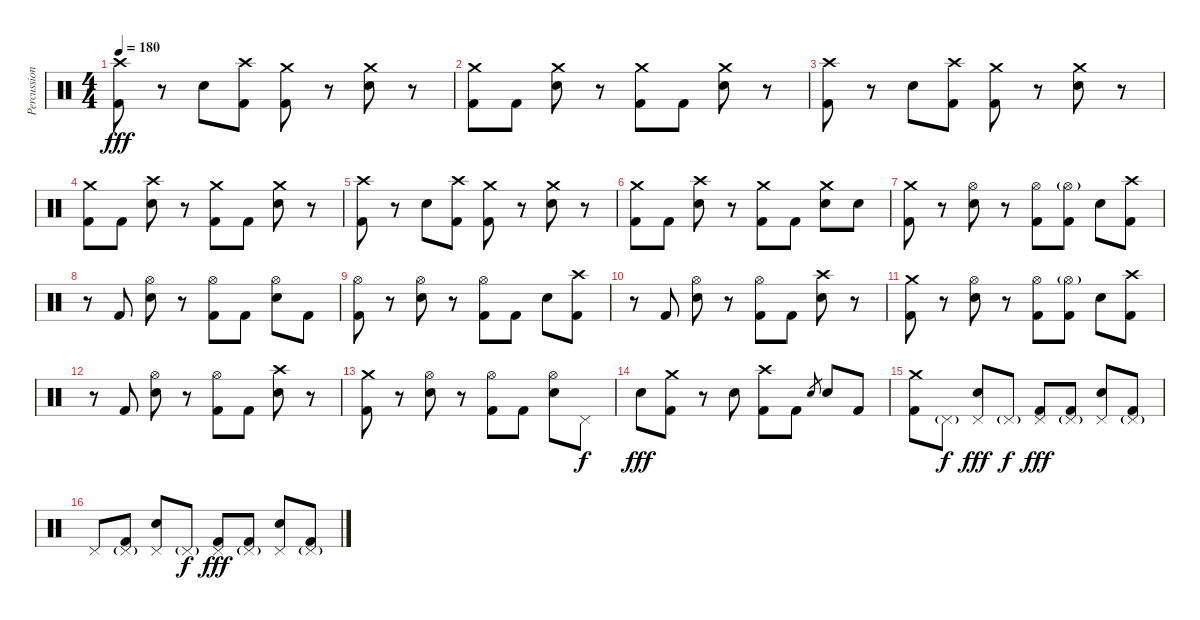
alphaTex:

\track ("Percussions" "Percussion") {mute instrument percussion}
\staff {score}
\articulation defaults
\ts (4 4)
\tempo 180
\clef neutral
\ks c
("Crash high (hit)" "Kick (hit) 2").8{dy fff} r.8 "Electric Snare (hit)".8 ("Crash high (hit)" "Kick (hit) 2").8 ("Crash medium (hit)" "Kick (hit) 2").8 r.8 ("Crash medium (hit)" "Electric Snare (hit)").8 r.8 |
("Crash medium (hit)" "Kick (hit) 2").8 "Kick (hit) 2".8 ("Crash medium (hit)" "Electric Snare (hit)").8 r.8 ("Crash medium (hit)" "Kick (hit) 2").8 "Kick (hit) 2".8 ("Crash medium (hit)" "Electric Snare (hit)").8 r.8 |
("Crash high (hit)" "Kick (hit) 2").8 r.8 "Electric Snare (hit)".8 ("Crash high (hit)" "Kick (hit) 2").8 ("Crash medium (hit)" "Kick (hit) 2").8 r.8 ("Crash medium (hit)" "Electric Snare (hit)").8 r.8 |
("Crash medium (hit)" "Kick (hit) 2").8 "Kick (hit) 2".8 ("Crash high (hit)" "Electric Snare (hit)").8 r.8 ("Crash medium (hit)" "Kick (hit) 2").8 "Kick (hit) 2".8 ("Crash medium (hit)" "Electric Snare (hit)").8 r.8 |
("Crash high (hit)" "Kick (hit) 2").8 r.8 "Electric Snare (hit)".8 ("Crash high (hit)" "Kick (hit) 2").8 ("Crash medium (hit)" "Kick (hit) 2").8 r.8 ("Crash medium (hit)" "Electric Snare (hit)").8 r.8 |
("Crash medium (hit)" "Kick (hit) 2").8 "Kick (hit) 2".8 ("Crash high (hit)" "Electric Snare (hit)").8 r.8 ("Crash medium (hit)" "Kick (hit) 2").8 "Kick (hit) 2".8 ("Crash medium (hit)" "Electric Snare (hit)").8 "Electric Snare (hit)".8 |
("Crash medium (hit)" "Kick (hit) 2").8 r.8 ("Hi-Hat (open)" "Electric Snare (hit)").8 r.8 ("Hi-Hat (open)" "Kick (hit) 2").8 ("Hi-Hat (open)"{g} "Kick (hit) 2").8 "Electric Snare (hit)".8 ("Crash high (hit)" "Kick (hit) 2").8 |
r.8 "Kick (hit) 2".8 ("Hi-Hat (open)" "Electric Snare (hit)").8 r.8 ("Hi-Hat (open)" "Kick (hit) 2").8 "Kick (hit) 2".8 ("Hi-Hat (open)" "Electric Snare (hit)").8 "Kick (hit) 2".8 |
("Hi-Hat (open)" "Kick (hit) 2").8 r.8 ("Hi-Hat (open)" "Electric Snare (hit)").8 r.8 ("Hi-Hat (open)" "Kick (hit) 2").8 "Kick (hit) 2".8 "Electric Snare (hit)".8 ("Crash high (hit)" "Kick (hit) 2").8 |
r.8 "Kick (hit) 2".8 ("Hi-Hat (open)" "Electric Snare (hit)").8 r.8 ("Hi-Hat (open)" "Kick (hit) 2").8 "Kick (hit) 2".8 ("Crash high (hit)" "Electric Snare (hit)").8 r.8 |
("Crash medium (hit)" "Kick (hit) 2").8 r.8 ("Hi-Hat (open)" "Electric Snare (hit)").8 r.8 ("Hi-Hat (open)" "Kick (hit) 2").8 ("Hi-Hat (open)"{g} "Kick (hit) 2").8 "Electric Snare (hit)".8 ("Crash high (hit)" "Kick (hit) 2").8 |
r.8 "Kick (hit) 2".8 ("Hi-Hat (open)" "Electric Snare (hit)").8 r.8 ("Hi-Hat (open)" "Kick (hit) 2").8 "Kick (hit) 2".8 ("Crash high (hit)" "Electric Snare (hit)").8 r.8 |
("Crash medium (hit)" "Kick (hit) 2").8 r.8 ("Hi-Hat (open)" "Electric Snare (hit)").8 r.8 ("Hi-Hat (open)" "Kick (hit) 2").8 "Kick (hit) 2".8 ("Hi-Hat (open)" "Electric Snare (hit)").8 "Pedal Hi-Hat (hit)".8{dy f} |
"Electric Snare (hit)".8{dy fff} ("Crash medium (hit)" "Kick (hit) 2").8 r.8 "Electric Snare (hit)".8 ("Crash high (hit)" "Kick (hit) 2").8 "Kick (hit) 2".8 "Electric Snare (hit)".8{gr} "Electric Snare (hit)".8 "Kick (hit) 2".8 |
("Crash medium (hit)" "Kick (hit) 2").8 "Pedal Hi-Hat (hit)"{g}.8{dy f} ("Pedal Hi-Hat (hit)" "Electric Snare (hit)").8{dy fff} "Pedal Hi-Hat (hit)"{g}.8{dy f} ("Pedal Hi-Hat (hit)" "Kick (hit) 2").8{dy fff} ("Pedal Hi-Hat (hit)"{g} "Kick (hit) 2").8 ("Pedal Hi-Hat (hit)" "Electric Snare (hit)").8 ("Pedal Hi-Hat (hit)"{g} "Kick (hit) 2").8 |
"Pedal Hi-Hat (hit)".8 ("Pedal Hi-Hat (hit)"{g} "Kick (hit) 2").8 ("Pedal Hi-Hat (hit)" "Electric Snare (hit)").8 "Pedal Hi-Hat (hit)"{g}.8{dy f} ("Pedal Hi-Hat (hit)" "Kick (hit) 2").8{dy fff} ("Pedal Hi-Hat (hit)"{g} "Kick (hit) 2").8 ("Pedal Hi-Hat (hit)" "Electric Snare (hit)").8 ("Pedal Hi-Hat (hit)"{g} "Kick (hit) 2").8
